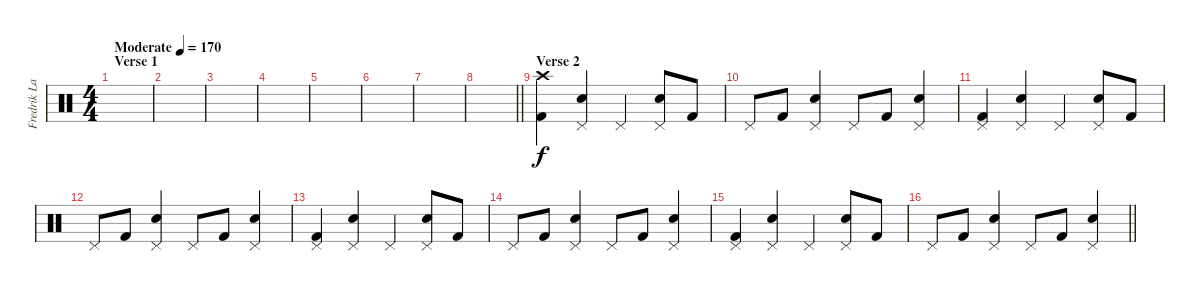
\track ("Fredrik Larzon - Percussion" "Fredrik La") {instrument percussion}
\staff {score}
\articulation defaults
\ts (4 4)
\section ("" "Verse 1")
\tempo (170 "Moderate")
\clef neutral
\ks c
|
|
|
|
|
|
|
\barLineRight lightlight
|
\section ("" "Verse 2")
("Crash high (hit)" "Kick (hit) 2").4 ("Pedal Hi-Hat (hit)" "Electric Snare (hit)").4 "Pedal Hi-Hat (hit)".4 ("Pedal Hi-Hat (hit)" "Electric Snare (hit)").8 "Kick (hit) 2".8 |
"Pedal Hi-Hat (hit)".8 "Kick (hit) 2".8 ("Pedal Hi-Hat (hit)" "Electric Snare (hit)").4 "Pedal Hi-Hat (hit)".8 "Kick (hit) 2".8 ("Pedal Hi-Hat (hit)" "Electric Snare (hit)").4 |
("Pedal Hi-Hat (hit)" "Kick (hit) 2").4 ("Pedal Hi-Hat (hit)" "Electric Snare (hit)").4 "Pedal Hi-Hat (hit)".4 ("Pedal Hi-Hat (hit)" "Electric Snare (hit)").8 "Kick (hit) 2".8 |
"Pedal Hi-Hat (hit)".8 "Kick (hit) 2".8 ("Pedal Hi-Hat (hit)" "Electric Snare (hit)").4 "Pedal Hi-Hat (hit)".8 "Kick (hit) 2".8 ("Pedal Hi-Hat (hit)" "Electric Snare (hit)").4 |
("Pedal Hi-Hat (hit)" "Kick (hit) 2").4 ("Pedal Hi-Hat (hit)" "Electric Snare (hit)").4 "Pedal Hi-Hat (hit)".4 ("Pedal Hi-Hat (hit)" "Electric Snare (hit)").8 "Kick (hit) 2".8 |
"Pedal Hi-Hat (hit)".8 "Kick (hit) 2".8 ("Pedal Hi-Hat (hit)" "Electric Snare (hit)").4 "Pedal Hi-Hat (hit)".8 "Kick (hit) 2".8 ("Pedal Hi-Hat (hit)" "Electric Snare (hit)").4 |
("Pedal Hi-Hat (hit)" "Kick (hit) 2").4 ("Pedal Hi-Hat (hit)" "Electric Snare (hit)").4 "Pedal Hi-Hat (hit)".4 ("Pedal Hi-Hat (hit)" "Electric Snare (hit)").8 "Kick (hit) 2".8 |
\barLineRight lightlight "Pedal Hi-Hat (hit)".8 "Kick (hit) 2".8
("Pedal Hi-Hat (hit)" "Electric Snare (hit)").4 "Pedal Hi-Hat (hit)".8 "Kick (hit) 2".8 ("Pedal Hi-Hat (hit)" "Electric Snare (hit)").4
